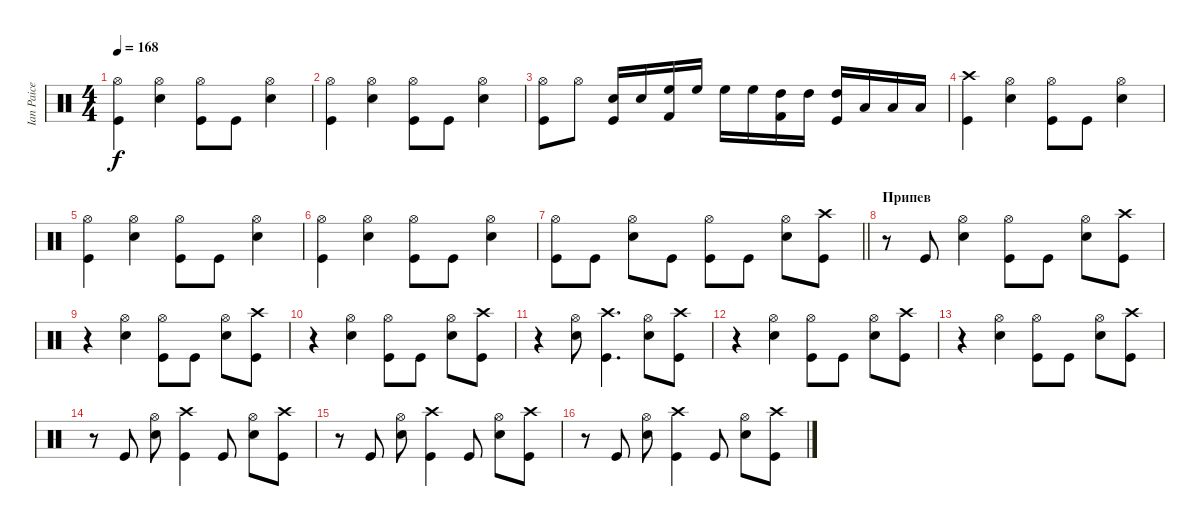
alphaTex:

\track ("Ian Paice" "Ian Paice") {instrument percussion}
\staff {score}
\articulation defaults
\ts (4 4)
\tempo 168
\clef neutral
\ks c
("Kick (hit)" "Hi-Hat (open)").4{dy f} ("Hi-Hat (open)" "Snare (hit) 2").4 ("Hi-Hat (open)" "Kick (hit)").8 "Kick (hit)".8 ("Hi-Hat (open)" "Snare (hit) 2").4 |
("Hi-Hat (open)" "Kick (hit)").4 ("Hi-Hat (open)" "Snare (hit) 2").4 ("Kick (hit)" "Hi-Hat (open)").8 "Kick (hit)".8 ("Snare (hit) 2" "Hi-Hat (open)").4 |
("Hi-Hat (open)" "Kick (hit)").8 "Hi-Hat (open)".8 ("Electric Snare (hit)" "Kick (hit)").16 "Electric Snare (hit)".16 ("High Floor Tom (hit)" "Kick (hit) 2").16 "High Floor Tom (hit)".16 "High Floor Tom (hit)".16 "High Floor Tom (hit)".16 ("High Tom (hit)" "Kick (hit) 2").16 "High Tom (hit)".16 ("Kick (hit)" "High Tom (hit)").16 "Low Tom (hit)".16 "Low Tom (hit)".16 "Low Floor Tom (hit)".16 |
("Crash high (hit)" "Kick (hit)").4 ("Snare (hit) 2" "Hi-Hat (open)").4 ("Hi-Hat (open)" "Kick (hit)").8 "Kick (hit)".8 ("Snare (hit) 2" "Hi-Hat (open)").4 |
("Kick (hit)" "Hi-Hat (open)").4 ("Snare (hit) 2" "Hi-Hat (open)").4 ("Hi-Hat (open)" "Kick (hit)").8 "Kick (hit)".8 ("Hi-Hat (open)" "Snare (hit) 2").4 |
("Kick (hit)" "Hi-Hat (open)").4 ("Snare (hit) 2" "Hi-Hat (open)").4 ("Hi-Hat (open)" "Kick (hit)").8 "Kick (hit)".8 ("Hi-Hat (open)" "Snare (hit) 2").4 |
\barLineRight lightlight
("Kick (hit)" "Hi-Hat (open)").8 "Kick (hit)".8 ("Snare (hit) 2" "Hi-Hat (open)").8 "Kick (hit)".8 ("Hi-Hat (open)" "Kick (hit)").8 "Kick (hit)".8 ("Snare (hit) 2" "Hi-Hat (open)").8 ("Crash high (hit)" "Kick (hit)").8 |
\section ("" "Припев")
r.8 "Kick (hit)".8 ("Hi-Hat (open)" "Snare (hit) 2").4 ("Hi-Hat (open)" "Kick (hit)").8 "Kick (hit)".8 ("Hi-Hat (open)" "Snare (hit) 2").8 ("Kick (hit)" "Crash high (hit)").8 |
r.4 ("Hi-Hat (open)" "Snare (hit) 2").4 ("Hi-Hat (open)" "Kick (hit)").8 "Kick (hit)".8 ("Hi-Hat (open)" "Snare (hit) 2").8 ("Kick (hit)" "Crash high (hit)").8 |
r.4 ("Hi-Hat (open)" "Snare (hit) 2").4 ("Hi-Hat (open)" "Kick (hit)").8 "Kick (hit)".8 ("Hi-Hat (open)" "Snare (hit) 2").8 ("Kick (hit)" "Crash high (hit)").8 |
r.4 ("Hi-Hat (open)" "Snare (hit) 2").8 ("Kick (hit)" "Crash high (hit)").4{d} ("Hi-Hat (open)" "Snare (hit) 2").8 ("Kick (hit)" "Crash high (hit)").8 |
r.4 ("Snare (hit) 2" "Hi-Hat (open)").4 ("Kick (hit)" "Hi-Hat (open)").8 "Kick (hit)".8 ("Hi-Hat (open)" "Snare (hit) 2").8 ("Crash high (hit)" "Kick (hit)").8 |
r.4 ("Snare (hit) 2" "Hi-Hat (open)").4 ("Kick (hit)" "Hi-Hat (open)").8 "Kick (hit)".8 ("Snare (hit) 2" "Hi-Hat (open)").8 ("Crash high (hit)" "Kick (hit)").8 |
r.8 "Kick (hit)".8 ("Hi-Hat (open)" "Snare (hit) 2").8 ("Kick (hit)" "Crash high (hit)").4 "Kick (hit)".8 ("Hi-Hat (open)" "Snare (hit) 2").8 ("Crash high (hit)" "Kick (hit)").8 |
r.8 "Kick (hit)".8 ("Snare (hit) 2" "Hi-Hat (open)").8 ("Kick (hit)" "Crash high (hit)").4 "Kick (hit)".8 ("Hi-Hat (open)" "Snare (hit) 2").8 ("Crash high (hit)" "Kick (hit)").8 |
r.8 "Kick (hit)".8 ("Hi-Hat (open)" "Snare (hit) 2").8 ("Crash high (hit)" "Kick (hit)").4 "Kick (hit)".8 ("Hi-Hat (open)" "Snare (hit) 2").8 ("Crash high (hit)" "Kick (hit)").8
